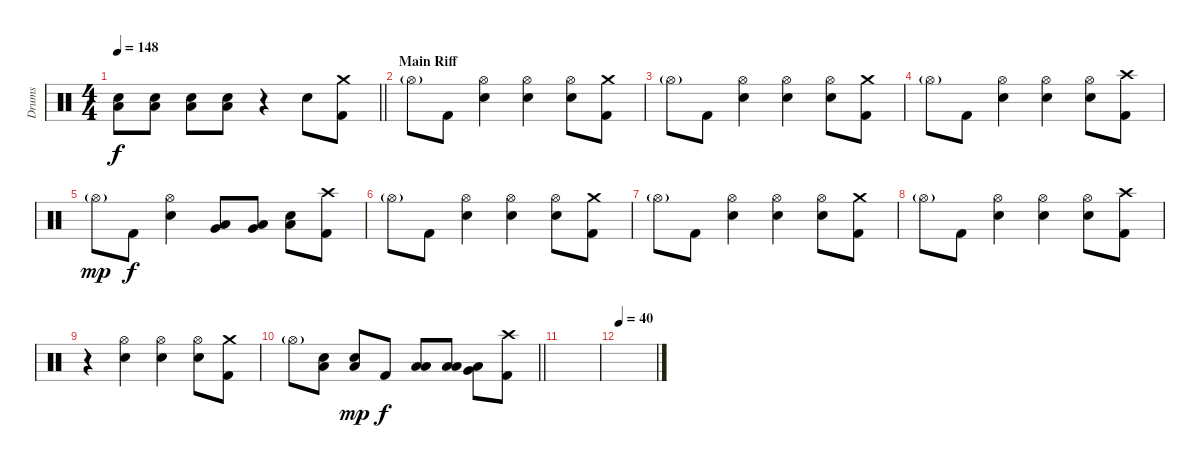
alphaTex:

\track ("Drums" "Drums") {instrument percussion}
\staff {score}
\articulation defaults
\ts (4 4)
\tempo 148
\clef neutral
\barLineRight lightlight
\ks c
("Low Floor Tom (hit)" "Electric Snare (hit)").8{dy f} ("Low Floor Tom (hit)" "Electric Snare (hit)").8 ("Low Floor Tom (hit)" "Electric Snare (hit)").8 ("Low Floor Tom (hit)" "Electric Snare (hit)").8 r.4 "Electric Snare (hit)".8 ("Crash medium (hit)" "Kick (hit) 2").8 |
\section ("" "Main Riff")
"Hi-Hat (open)"{g}.8 "Kick (hit) 2".8 ("Hi-Hat (open)" "Electric Snare (hit)").4 ("Hi-Hat (open)" "Electric Snare (hit)").4 ("Hi-Hat (open)" "Electric Snare (hit)").8 ("Crash medium (hit)" "Kick (hit) 2").8 |
"Hi-Hat (open)"{g}.8 "Kick (hit) 2".8 ("Hi-Hat (open)" "Electric Snare (hit)").4 ("Hi-Hat (open)" "Electric Snare (hit)").4 ("Hi-Hat (open)" "Electric Snare (hit)").8 ("Crash medium (hit)" "Kick (hit) 2").8 |
"Hi-Hat (open)"{g}.8 "Kick (hit) 2".8 ("Hi-Hat (open)" "Electric Snare (hit)").4 ("Hi-Hat (open)" "Electric Snare (hit)").4 ("Hi-Hat (open)" "Electric Snare (hit)").8 ("Crash high (hit)" "Kick (hit) 2").8 |
"Hi-Hat (open)"{g}.8{dy mp} "Kick (hit) 2".8{dy f} ("Hi-Hat (open)" "Electric Snare (hit)").4 ("Very Low Tom (hit)" "Low Tom (hit)").8 ("Very Low Tom (hit)" "Low Tom (hit)").8 ("Electric Snare (hit)" "Low Floor Tom (hit)").8 ("Kick (hit) 2" "Crash high (hit)").8 |
"Hi-Hat (open)"{g}.8 "Kick (hit) 2".8 ("Hi-Hat (open)" "Electric Snare (hit)").4 ("Hi-Hat (open)" "Electric Snare (hit)").4 ("Hi-Hat (open)" "Electric Snare (hit)").8 ("Crash medium (hit)" "Kick (hit) 2").8 |
"Hi-Hat (open)"{g}.8 "Kick (hit) 2".8 ("Hi-Hat (open)" "Electric Snare (hit)").4 ("Hi-Hat (open)" "Electric Snare (hit)").4 ("Hi-Hat (open)" "Electric Snare (hit)").8 ("Crash medium (hit)" "Kick (hit) 2").8 |
"Hi-Hat (open)"{g}.8 "Kick (hit) 2".8 ("Hi-Hat (open)" "Electric Snare (hit)").4 ("Hi-Hat (open)" "Electric Snare (hit)").4 ("Hi-Hat (open)" "Electric Snare (hit)").8 ("Crash high (hit)" "Kick (hit) 2").8 |
r.4 ("Hi-Hat (open)" "Electric Snare (hit)").4 ("Hi-Hat (open)" "Electric Snare (hit)").4 ("Hi-Hat (open)" "Electric Snare (hit)").8 ("Crash medium (hit)" "Kick (hit) 2").8 |
\barLineRight lightlight "Hi-Hat (open)"{g}.8
("Low Floor Tom (hit)" "Electric Snare (hit)").8 ("Low Floor Tom (hit)" "Electric Snare (hit)").8{dy mp} "Kick (hit) 2".8{dy f} ("Low Tom (hit)" "Low Floor Tom (hit)").8 ("Low Tom (hit)" "Low Floor Tom (hit)").8 ("Very Low Tom (hit)" "Low Floor Tom (hit)").8 ("Kick (hit) 2" "Crash high (hit)").8 |
|
\tempo 40
